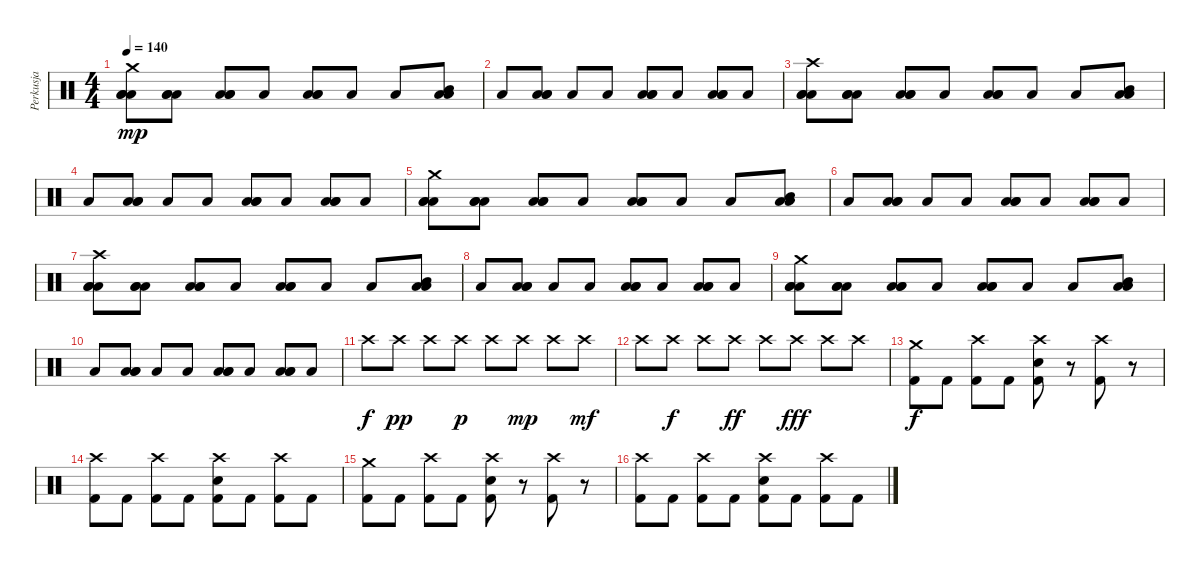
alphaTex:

\track ("Perkusja" "Perkusja") {instrument percussion}
\staff {score}
\articulation defaults
\ts (4 4)
\tempo 140
\clef neutral
\ks c
("Crash medium (hit)" "Low Tom (hit)" "Low Floor Tom (hit)" "Low Floor Tom (hit)").8{dy mp} ("Low Tom (hit)" "Low Floor Tom (hit)" "Low Floor Tom (hit)").8 ("Low Tom (hit)" "Low Floor Tom (hit)" "Low Floor Tom (hit)").8 "Low Floor Tom (hit)".8 ("Low Tom (hit)" "Low Floor Tom (hit)" "Low Floor Tom (hit)").8 "Low Floor Tom (hit)".8 "Low Floor Tom (hit)".8 ("Mid Tom (hit)" "Low Floor Tom (hit)" "Low Floor Tom (hit)").8 |
"Low Floor Tom (hit)".8 ("Low Tom (hit)" "Low Floor Tom (hit)" "Low Floor Tom (hit)").8 "Low Floor Tom (hit)".8 "Low Floor Tom (hit)".8 ("Low Tom (hit)" "Low Floor Tom (hit)" "Low Floor Tom (hit)").8 "Low Floor Tom (hit)".8 ("Low Tom (hit)" "Low Floor Tom (hit)" "Low Floor Tom (hit)").8 "Low Floor Tom (hit)".8 |
("Crash high (hit)" "Low Tom (hit)" "Low Floor Tom (hit)" "Low Floor Tom (hit)").8 ("Low Tom (hit)" "Low Floor Tom (hit)" "Low Floor Tom (hit)").8 ("Low Tom (hit)" "Low Floor Tom (hit)" "Low Floor Tom (hit)").8 "Low Floor Tom (hit)".8 ("Low Tom (hit)" "Low Floor Tom (hit)" "Low Floor Tom (hit)").8 "Low Floor Tom (hit)".8 "Low Floor Tom (hit)".8 ("Mid Tom (hit)" "Low Floor Tom (hit)" "Low Floor Tom (hit)").8 |
"Low Floor Tom (hit)".8 ("Low Tom (hit)" "Low Floor Tom (hit)" "Low Floor Tom (hit)").8 "Low Floor Tom (hit)".8 "Low Floor Tom (hit)".8 ("Low Tom (hit)" "Low Floor Tom (hit)" "Low Floor Tom (hit)").8 "Low Floor Tom (hit)".8 ("Low Tom (hit)" "Low Floor Tom (hit)" "Low Floor Tom (hit)").8 "Low Floor Tom (hit)".8 |
("Crash medium (hit)" "Low Tom (hit)" "Low Floor Tom (hit)" "Low Floor Tom (hit)").8 ("Low Tom (hit)" "Low Floor Tom (hit)" "Low Floor Tom (hit)").8 ("Low Tom (hit)" "Low Floor Tom (hit)" "Low Floor Tom (hit)").8 "Low Floor Tom (hit)".8 ("Low Tom (hit)" "Low Floor Tom (hit)" "Low Floor Tom (hit)").8 "Low Floor Tom (hit)".8 "Low Floor Tom (hit)".8 ("Mid Tom (hit)" "Low Floor Tom (hit)" "Low Floor Tom (hit)").8 |
"Low Floor Tom (hit)".8 ("Low Tom (hit)" "Low Floor Tom (hit)" "Low Floor Tom (hit)").8 "Low Floor Tom (hit)".8 "Low Floor Tom (hit)".8 ("Low Tom (hit)" "Low Floor Tom (hit)" "Low Floor Tom (hit)").8 "Low Floor Tom (hit)".8 ("Low Tom (hit)" "Low Floor Tom (hit)" "Low Floor Tom (hit)").8 "Low Floor Tom (hit)".8 |
("Crash high (hit)" "Low Tom (hit)" "Low Floor Tom (hit)" "Low Floor Tom (hit)").8 ("Low Tom (hit)" "Low Floor Tom (hit)" "Low Floor Tom (hit)").8 ("Low Tom (hit)" "Low Floor Tom (hit)" "Low Floor Tom (hit)").8 "Low Floor Tom (hit)".8 ("Low Tom (hit)" "Low Floor Tom (hit)" "Low Floor Tom (hit)").8 "Low Floor Tom (hit)".8 "Low Floor Tom (hit)".8 ("Mid Tom (hit)" "Low Floor Tom (hit)" "Low Floor Tom (hit)").8 |
"Low Floor Tom (hit)".8 ("Low Tom (hit)" "Low Floor Tom (hit)" "Low Floor Tom (hit)").8 "Low Floor Tom (hit)".8 "Low Floor Tom (hit)".8 ("Low Tom (hit)" "Low Floor Tom (hit)" "Low Floor Tom (hit)").8 "Low Floor Tom (hit)".8 ("Low Tom (hit)" "Low Floor Tom (hit)" "Low Floor Tom (hit)").8 "Low Floor Tom (hit)".8 |
("Crash medium (hit)" "Low Tom (hit)" "Low Floor Tom (hit)" "Low Floor Tom (hit)").8 ("Low Tom (hit)" "Low Floor Tom (hit)" "Low Floor Tom (hit)").8 ("Low Tom (hit)" "Low Floor Tom (hit)" "Low Floor Tom (hit)").8 "Low Floor Tom (hit)".8 ("Low Tom (hit)" "Low Floor Tom (hit)" "Low Floor Tom (hit)").8 "Low Floor Tom (hit)".8 "Low Floor Tom (hit)".8 ("Mid Tom (hit)" "Low Floor Tom (hit)" "Low Floor Tom (hit)").8 |
"Low Floor Tom (hit)".8 ("Low Tom (hit)" "Low Floor Tom (hit)" "Low Floor Tom (hit)").8 "Low Floor Tom (hit)".8 "Low Floor Tom (hit)".8 ("Low Tom (hit)" "Low Floor Tom (hit)" "Low Floor Tom (hit)").8 "Low Floor Tom (hit)".8 ("Low Tom (hit)" "Low Floor Tom (hit)" "Low Floor Tom (hit)").8 "Low Floor Tom (hit)".8 |
"Crash high (hit)".8{dy f} "Crash high (hit)".8{dy pp} "Crash high (hit)".8 "Crash high (hit)".8{dy p} "Crash high (hit)".8 "Crash high (hit)".8{dy mp} "Crash high (hit)".8 "Crash high (hit)".8{dy mf} |
"Crash high (hit)".8 "Crash high (hit)".8{dy f} "Crash high (hit)".8 "Crash high (hit)".8{dy ff} "Crash high (hit)".8 "Crash high (hit)".8{dy fff} "Crash high (hit)".8 "Crash high (hit)".8 |
("Crash medium (hit)" "Kick (hit) 2").8{dy f} "Kick (hit) 2".8 ("Crash high (hit)" "Kick (hit) 2").8 "Kick (hit) 2".8 ("Crash high (hit)" "Electric Snare (hit)" "Kick (hit) 2").8 r.8 ("Crash high (hit)" "Kick (hit) 2").8 r.8 |
("Crash high (hit)" "Kick (hit) 2").8 "Kick (hit) 2".8 ("Crash high (hit)" "Kick (hit) 2").8 "Kick (hit) 2".8 ("Crash high (hit)" "Electric Snare (hit)" "Kick (hit) 2").8 "Kick (hit) 2".8 ("Crash high (hit)" "Kick (hit) 2").8 "Kick (hit) 2".8 |
("Crash medium (hit)" "Kick (hit) 2").8 "Kick (hit) 2".8 ("Crash high (hit)" "Kick (hit) 2").8 "Kick (hit) 2".8 ("Crash high (hit)" "Electric Snare (hit)" "Kick (hit) 2").8 r.8 ("Crash high (hit)" "Kick (hit) 2").8 r.8 |
("Crash high (hit)" "Kick (hit) 2").8 "Kick (hit) 2".8 ("Crash high (hit)" "Kick (hit) 2").8 "Kick (hit) 2".8 ("Crash high (hit)" "Electric Snare (hit)" "Kick (hit) 2").8 "Kick (hit) 2".8 ("Crash high (hit)" "Kick (hit) 2").8 "Kick (hit) 2".8
